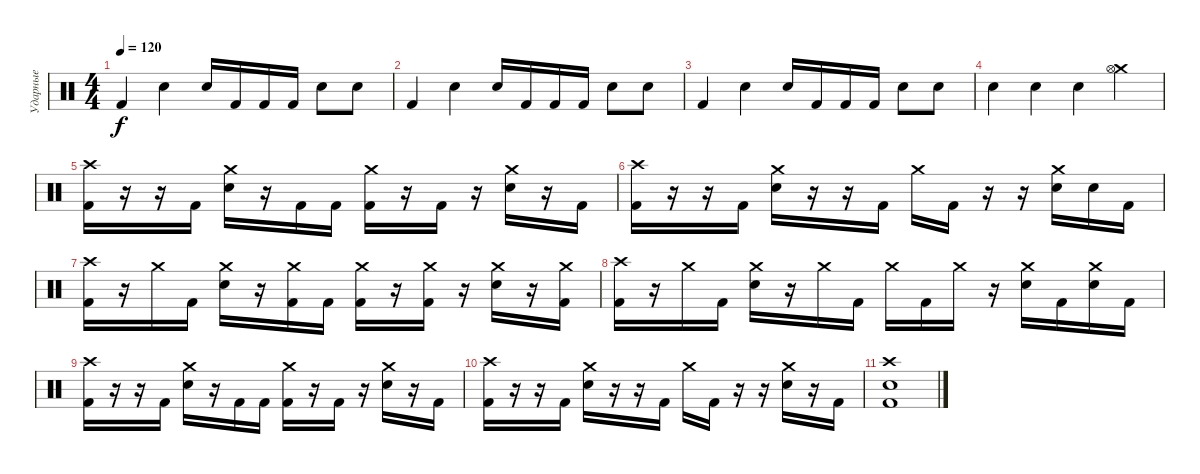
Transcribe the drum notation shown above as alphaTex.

\track ("Ударные" "Ударные") {instrument percussion}
\staff {score}
\articulation defaults
\ts (4 4)
\tempo 120
\clef neutral
\ks c "Kick (hit) 2".4{dy f} "Electric Snare (hit)".4 "Electric Snare (hit)".16 "Kick (hit) 2".16 "Kick (hit) 2".16 "Kick (hit) 2".16 "Electric Snare (hit)".8 "Electric Snare (hit)".8
|
"Kick (hit) 2".4 "Electric Snare (hit)".4 "Electric Snare (hit)".16 "Kick (hit) 2".16 "Kick (hit) 2".16 "Kick (hit) 2".16 "Electric Snare (hit)".8 "Electric Snare (hit)".8 |
"Kick (hit) 2".4 "Electric Snare (hit)".4 "Electric Snare (hit)".16 "Kick (hit) 2".16 "Kick (hit) 2".16 "Kick (hit) 2".16 "Electric Snare (hit)".8 "Electric Snare (hit)".8 |
"Snare (hit)".4 "Snare (hit)".4 "Snare (hit)".4 ("Crash medium (hit)" "Hi-Hat (open)").4 |
("Crash high (hit)" "Kick (hit) 2").16{volume 16} r.16 r.16 "Kick (hit) 2".16 ("Crash medium (hit)" "Electric Snare (hit)").16 r.16 "Kick (hit) 2".16 "Kick (hit) 2".16 ("Crash medium (hit)" "Kick (hit) 2").16 r.16 "Kick (hit) 2".16 r.16 ("Crash medium (hit)" "Electric Snare (hit)").16 r.16 "Kick (hit) 2".16 |
("Crash high (hit)" "Kick (hit) 2").16 r.16 r.16 "Kick (hit) 2".16 ("Crash medium (hit)" "Electric Snare (hit)").16 r.16 r.16 "Kick (hit) 2".16 "Crash medium (hit)".16 "Kick (hit) 2".16 r.16 r.16 ("Crash medium (hit)" "Electric Snare (hit)").16 "Snare (hit)".16 "Kick (hit) 2".16 |
("Crash high (hit)" "Kick (hit) 2").16 r.16 "Crash medium (hit)".16 "Kick (hit) 2".16 ("Crash medium (hit)" "Electric Snare (hit)").16 r.16 ("Crash medium (hit)" "Kick (hit) 2").16 "Kick (hit) 2".16 ("Crash medium (hit)" "Kick (hit) 2").16 r.16 ("Crash medium (hit)" "Kick (hit) 2").16 r.16 ("Crash medium (hit)" "Electric Snare (hit)").16 r.16 ("Crash medium (hit)" "Kick (hit) 2").16 |
("Crash high (hit)" "Kick (hit) 2").16 r.16 "Crash medium (hit)".16 "Kick (hit) 2".16 ("Crash medium (hit)" "Electric Snare (hit)").16 r.16 "Crash medium (hit)".16 "Kick (hit) 2".16 "Crash medium (hit)".16 "Kick (hit) 2".16 "Crash medium (hit)".16 r.16 ("Crash medium (hit)" "Electric Snare (hit)").16 "Kick (hit) 2".16 ("Crash medium (hit)" "Electric Snare (hit)").16 "Kick (hit) 2".16 |
("Crash high (hit)" "Kick (hit) 2").16 r.16 r.16 "Kick (hit) 2".16 ("Crash medium (hit)" "Electric Snare (hit)").16 r.16 "Kick (hit) 2".16 "Kick (hit) 2".16 ("Crash medium (hit)" "Kick (hit) 2").16 r.16 "Kick (hit) 2".16 r.16 ("Crash medium (hit)" "Electric Snare (hit)").16 r.16 "Kick (hit) 2".16 |
("Crash high (hit)" "Kick (hit) 2").16 r.16 r.16 "Kick (hit) 2".16 ("Crash medium (hit)" "Electric Snare (hit)").16 r.16 r.16 "Kick (hit) 2".16 "Crash medium (hit)".16 "Kick (hit) 2".16 r.16 r.16 ("Crash medium (hit)" "Electric Snare (hit)").16 r.16 "Kick (hit) 2".16 |
("Crash high (hit)" "Kick (hit) 2" "Snare (hit) 2").1
